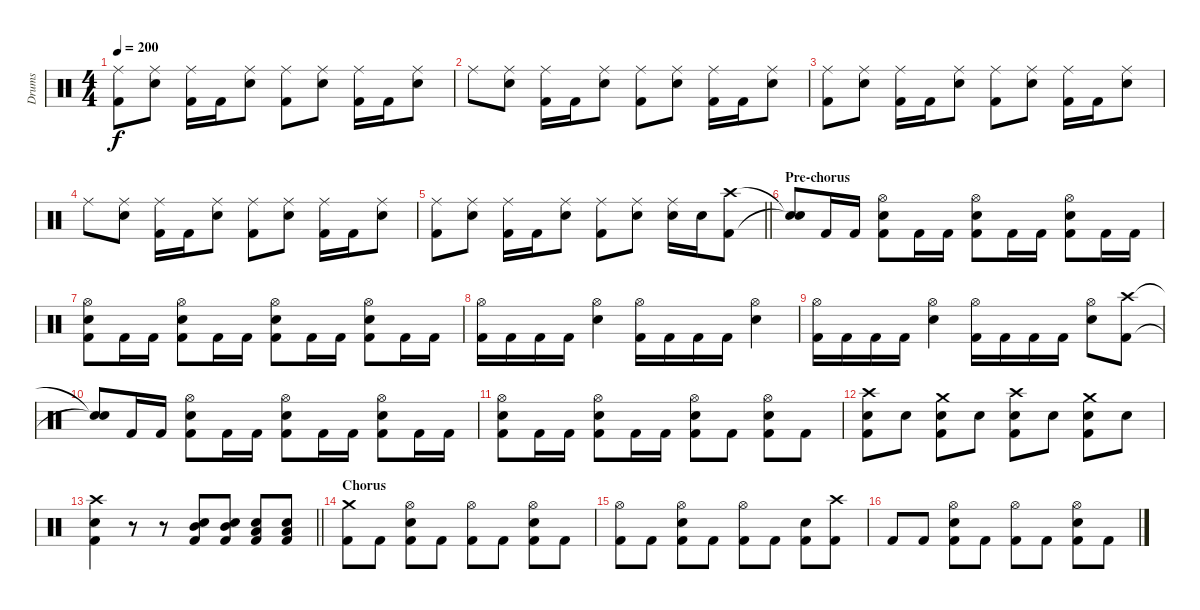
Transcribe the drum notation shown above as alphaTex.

\track ("Drums" "Drums") {instrument percussion}
\staff {score}
\articulation defaults
\ts (4 4)
\tempo 200
\clef neutral
\ks c
("Ride (middle)" "Kick (hit) 2").8{dy f} ("Ride (middle)" "Snare (hit) 2").8 ("Ride (middle)" "Kick (hit) 2").16 "Kick (hit) 2".16 ("Ride (middle)" "Snare (hit) 2").8 ("Ride (middle)" "Kick (hit) 2").8 ("Ride (middle)" "Snare (hit) 2").8 ("Ride (middle)" "Kick (hit) 2").16 "Kick (hit) 2".16 ("Ride (middle)" "Snare (hit) 2").8 |
"Ride (middle)".8 ("Ride (middle)" "Snare (hit) 2").8 ("Ride (middle)" "Kick (hit) 2").16 "Kick (hit) 2".16 ("Ride (middle)" "Snare (hit) 2").8 ("Ride (middle)" "Kick (hit) 2").8 ("Ride (middle)" "Snare (hit) 2").8 ("Ride (middle)" "Kick (hit) 2").16 "Kick (hit) 2".16 ("Ride (middle)" "Snare (hit) 2").8 |
("Ride (middle)" "Kick (hit) 2").8 ("Ride (middle)" "Snare (hit) 2").8 ("Ride (middle)" "Kick (hit) 2").16 "Kick (hit) 2".16 ("Ride (middle)" "Snare (hit) 2").8 ("Ride (middle)" "Kick (hit) 2").8 ("Ride (middle)" "Snare (hit) 2").8 ("Ride (middle)" "Kick (hit) 2").16 "Kick (hit) 2".16 ("Ride (middle)" "Snare (hit) 2").8 |
"Ride (middle)".8 ("Ride (middle)" "Snare (hit) 2").8 ("Ride (middle)" "Kick (hit) 2").16 "Kick (hit) 2".16 ("Ride (middle)" "Snare (hit) 2").8 ("Ride (middle)" "Kick (hit) 2").8 ("Ride (middle)" "Snare (hit) 2").8 ("Ride (middle)" "Kick (hit) 2").16 "Kick (hit) 2".16 ("Ride (middle)" "Snare (hit) 2").8 |
\barLineRight lightlight
("Ride (middle)" "Kick (hit) 2").8 ("Ride (middle)" "Snare (hit) 2").8 ("Ride (middle)" "Kick (hit) 2").16 "Kick (hit) 2".16 ("Ride (middle)" "Snare (hit) 2").8 ("Ride (middle)" "Kick (hit) 2").8 ("Ride (middle)" "Snare (hit) 2").8 ("Ride (middle)" "Snare (hit) 2").16 "Snare (hit) 2".16 ("Crash high (hit)" "Kick (hit) 2").8 |
\section ("" "Pre-chorus")
("Snare (hit)"{t} "Snare (hit)"{t}).8 "Kick (hit) 2".16 "Kick (hit) 2".16 ("Hi-Hat (open)" "Snare (hit) 2" "Kick (hit) 2").8 "Kick (hit) 2".16 "Kick (hit) 2".16 ("Hi-Hat (open)" "Snare (hit) 2" "Kick (hit) 2").8 "Kick (hit) 2".16 "Kick (hit) 2".16 ("Hi-Hat (open)" "Snare (hit) 2" "Kick (hit) 2").8 "Kick (hit) 2".16 "Kick (hit) 2".16 |
("Hi-Hat (open)" "Snare (hit) 2" "Kick (hit) 2").8 "Kick (hit) 2".16 "Kick (hit) 2".16 ("Hi-Hat (open)" "Snare (hit) 2" "Kick (hit) 2").8 "Kick (hit) 2".16 "Kick (hit) 2".16 ("Hi-Hat (open)" "Snare (hit) 2" "Kick (hit) 2").8 "Kick (hit) 2".16 "Kick (hit) 2".16 ("Hi-Hat (open)" "Snare (hit) 2" "Kick (hit) 2").8 "Kick (hit) 2".16 "Kick (hit) 2".16 |
("Hi-Hat (open)" "Kick (hit) 2").16 "Kick (hit) 2".16 "Kick (hit) 2".16 "Kick (hit) 2".16 ("Hi-Hat (open)" "Snare (hit) 2").4 ("Hi-Hat (open)" "Kick (hit) 2").16 "Kick (hit) 2".16 "Kick (hit) 2".16 "Kick (hit) 2".16 ("Hi-Hat (open)" "Snare (hit) 2").4 |
("Hi-Hat (open)" "Kick (hit) 2").16 "Kick (hit) 2".16 "Kick (hit) 2".16 "Kick (hit) 2".16 ("Hi-Hat (open)" "Snare (hit) 2").4 ("Hi-Hat (open)" "Kick (hit) 2").16 "Kick (hit) 2".16 "Kick (hit) 2".16 "Kick (hit) 2".16 ("Hi-Hat (open)" "Snare (hit) 2").8 ("Crash high (hit)" "Kick (hit) 2").8 |
("Snare (hit)"{t} "Snare (hit)"{t}).8 "Kick (hit) 2".16 "Kick (hit) 2".16 ("Hi-Hat (open)" "Snare (hit) 2" "Kick (hit) 2").8 "Kick (hit) 2".16 "Kick (hit) 2".16 ("Hi-Hat (open)" "Snare (hit) 2" "Kick (hit) 2").8 "Kick (hit) 2".16 "Kick (hit) 2".16 ("Hi-Hat (open)" "Snare (hit) 2" "Kick (hit) 2").8 "Kick (hit) 2".16 "Kick (hit) 2".16 |
("Hi-Hat (open)" "Snare (hit) 2" "Kick (hit) 2").8 "Kick (hit) 2".16 "Kick (hit) 2".16 ("Hi-Hat (open)" "Snare (hit) 2" "Kick (hit) 2").8 "Kick (hit) 2".16 "Kick (hit) 2".16 ("Hi-Hat (open)" "Snare (hit) 2" "Kick (hit) 2").8 "Kick (hit) 2".8 ("Hi-Hat (open)" "Snare (hit) 2" "Kick (hit) 2").8 "Kick (hit) 2".8 |
("Crash high (hit)" "Snare (hit) 2" "Kick (hit) 2").8 "Snare (hit) 2".8 ("Crash medium (hit)" "Snare (hit) 2" "Kick (hit) 2").8 "Snare (hit) 2".8 ("Crash high (hit)" "Snare (hit) 2" "Kick (hit) 2").8 "Snare (hit) 2".8 ("Crash medium (hit)" "Snare (hit) 2" "Kick (hit) 2").8 "Snare (hit) 2".8 |
\barLineRight lightlight
("Crash high (hit)" "Snare (hit) 2" "Kick (hit) 2").4 r.8 r.8 ("Mid Tom (hit)" "Snare (hit) 2" "Kick (hit) 2").8 ("Mid Tom (hit)" "Snare (hit) 2" "Kick (hit) 2").8 ("Low Tom (hit)" "Snare (hit) 2" "Kick (hit) 2").8 ("Low Tom (hit)" "Snare (hit) 2" "Kick (hit) 2").8 |
\section ("" "Chorus")
("Crash medium (hit)" "Kick (hit) 2").8 "Kick (hit) 2".8 ("Hi-Hat (open)" "Snare (hit) 2" "Kick (hit) 2").8 "Kick (hit) 2".8 ("Hi-Hat (open)" "Kick (hit) 2").8 "Kick (hit) 2".8 ("Hi-Hat (open)" "Snare (hit) 2" "Kick (hit) 2").8 "Kick (hit) 2".8 |
("Hi-Hat (open)" "Kick (hit) 2").8 "Kick (hit) 2".8 ("Hi-Hat (open)" "Snare (hit) 2" "Kick (hit) 2").8 "Kick (hit) 2".8 ("Hi-Hat (open)" "Kick (hit) 2").8 "Kick (hit) 2".8 ("Snare (hit) 2" "Kick (hit) 2").8 ("Crash high (hit)" "Kick (hit) 2").8 |
"Kick (hit) 2".8 "Kick (hit) 2".8 ("Hi-Hat (open)" "Snare (hit) 2" "Kick (hit) 2").8 "Kick (hit) 2".8 ("Hi-Hat (open)" "Kick (hit) 2").8 "Kick (hit) 2".8 ("Hi-Hat (open)" "Snare (hit) 2" "Kick (hit) 2").8 "Kick (hit) 2".8
